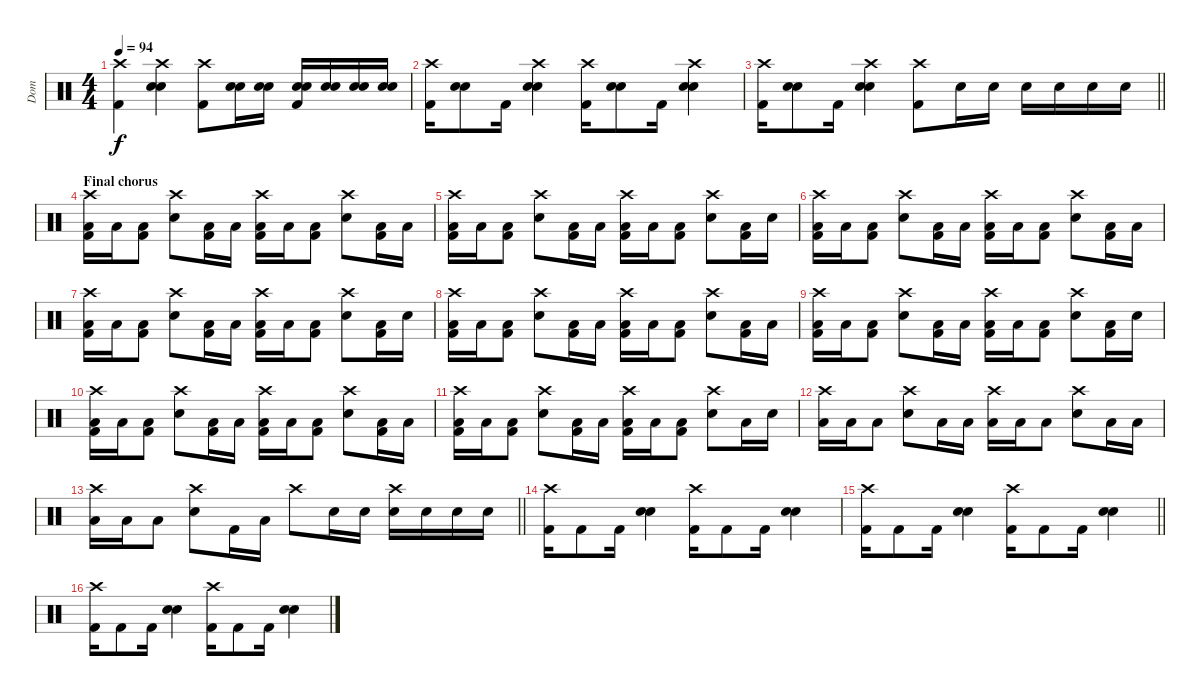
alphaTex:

\track ("Dom" "Dom") {instrument percussion}
\staff {score}
\articulation defaults
\ts (4 4)
\tempo 94
\clef neutral
\ks c
("Crash high (hit)" "Kick (hit) 2").4{dy f} ("Crash high (hit)" "Snare (hit) 2" "Electric Snare (hit)").4 ("Crash high (hit)" "Kick (hit) 2").8 ("Snare (hit) 2" "Electric Snare (hit)").16 ("Snare (hit) 2" "Electric Snare (hit)").16 ("Snare (hit) 2" "Electric Snare (hit)" "Kick (hit) 2").16 ("Snare (hit) 2" "Electric Snare (hit)").16 ("Snare (hit) 2" "Electric Snare (hit)").16 ("Snare (hit) 2" "Electric Snare (hit)").16 |
("Crash high (hit)" "Kick (hit) 2").16 ("Snare (hit) 2" "Electric Snare (hit)").8 "Kick (hit) 2".16 ("Crash high (hit)" "Snare (hit) 2" "Electric Snare (hit)").4 ("Crash high (hit)" "Kick (hit) 2").16 ("Snare (hit) 2" "Electric Snare (hit)").8 "Kick (hit) 2".16 ("Crash high (hit)" "Snare (hit) 2" "Electric Snare (hit)").4 |
\barLineRight lightlight
("Crash high (hit)" "Kick (hit) 2").16 ("Snare (hit) 2" "Electric Snare (hit)").8 "Kick (hit) 2".16 ("Crash high (hit)" "Snare (hit) 2" "Electric Snare (hit)").4 ("Crash high (hit)" "Kick (hit) 2").8 "Snare (hit) 2".16 "Snare (hit) 2".16 "Snare (hit) 2".16 "Snare (hit) 2".16 "Snare (hit) 2".16 "Snare (hit) 2".16 |
\section ("" "Final chorus")
("Crash high (hit)" "Low Tom (hit)" "Kick (hit) 2").16 "Low Tom (hit)".16 ("Low Tom (hit)" "Kick (hit) 2").8 ("Crash high (hit)" "Snare (hit) 2").8 ("Low Tom (hit)" "Kick (hit) 2").16 "Low Tom (hit)".16 ("Crash high (hit)" "Low Tom (hit)" "Kick (hit) 2").16 "Low Tom (hit)".16 ("Low Tom (hit)" "Kick (hit) 2").8 ("Crash high (hit)" "Snare (hit) 2").8 ("Low Tom (hit)" "Kick (hit) 2").16 "Low Tom (hit)".16 |
("Crash high (hit)" "Low Tom (hit)" "Kick (hit) 2").16 "Low Tom (hit)".16 ("Low Tom (hit)" "Kick (hit) 2").8 ("Crash high (hit)" "Snare (hit) 2").8 ("Low Tom (hit)" "Kick (hit) 2").16 "Low Tom (hit)".16 ("Crash high (hit)" "Low Tom (hit)" "Kick (hit) 2").16 "Low Tom (hit)".16 ("Low Tom (hit)" "Kick (hit) 2").8 ("Crash high (hit)" "Snare (hit) 2").8 ("Low Tom (hit)" "Kick (hit) 2").16 "Snare (hit) 2".16 |
("Crash high (hit)" "Low Tom (hit)" "Kick (hit) 2").16 "Low Tom (hit)".16 ("Low Tom (hit)" "Kick (hit) 2").8 ("Crash high (hit)" "Snare (hit) 2").8 ("Low Tom (hit)" "Kick (hit) 2").16 "Low Tom (hit)".16 ("Crash high (hit)" "Low Tom (hit)" "Kick (hit) 2").16 "Low Tom (hit)".16 ("Low Tom (hit)" "Kick (hit) 2").8 ("Crash high (hit)" "Snare (hit) 2").8 ("Low Tom (hit)" "Kick (hit) 2").16 "Low Tom (hit)".16 |
("Crash high (hit)" "Low Tom (hit)" "Kick (hit) 2").16 "Low Tom (hit)".16 ("Low Tom (hit)" "Kick (hit) 2").8 ("Crash high (hit)" "Snare (hit) 2").8 ("Low Tom (hit)" "Kick (hit) 2").16 "Low Tom (hit)".16 ("Crash high (hit)" "Low Tom (hit)" "Kick (hit) 2").16 "Low Tom (hit)".16 ("Low Tom (hit)" "Kick (hit) 2").8 ("Crash high (hit)" "Snare (hit) 2").8 ("Low Tom (hit)" "Kick (hit) 2").16 "Snare (hit) 2".16 |
("Crash high (hit)" "Low Tom (hit)" "Kick (hit) 2").16 "Low Tom (hit)".16 ("Low Tom (hit)" "Kick (hit) 2").8 ("Crash high (hit)" "Snare (hit) 2").8 ("Low Tom (hit)" "Kick (hit) 2").16 "Low Tom (hit)".16 ("Crash high (hit)" "Low Tom (hit)" "Kick (hit) 2").16 "Low Tom (hit)".16 ("Low Tom (hit)" "Kick (hit) 2").8 ("Crash high (hit)" "Snare (hit) 2").8 ("Low Tom (hit)" "Kick (hit) 2").16 "Low Tom (hit)".16 |
("Crash high (hit)" "Low Tom (hit)" "Kick (hit) 2").16 "Low Tom (hit)".16 ("Low Tom (hit)" "Kick (hit) 2").8 ("Crash high (hit)" "Snare (hit) 2").8 ("Low Tom (hit)" "Kick (hit) 2").16 "Low Tom (hit)".16 ("Crash high (hit)" "Low Tom (hit)" "Kick (hit) 2").16 "Low Tom (hit)".16 ("Low Tom (hit)" "Kick (hit) 2").8 ("Crash high (hit)" "Snare (hit) 2").8 ("Low Tom (hit)" "Kick (hit) 2").16 "Snare (hit) 2".16 |
("Crash high (hit)" "Low Tom (hit)" "Kick (hit) 2").16 "Low Tom (hit)".16 ("Low Tom (hit)" "Kick (hit) 2").8 ("Crash high (hit)" "Snare (hit) 2").8 ("Low Tom (hit)" "Kick (hit) 2").16 "Low Tom (hit)".16 ("Crash high (hit)" "Low Tom (hit)" "Kick (hit) 2").16 "Low Tom (hit)".16 ("Low Tom (hit)" "Kick (hit) 2").8 ("Crash high (hit)" "Snare (hit) 2").8 ("Low Tom (hit)" "Kick (hit) 2").16 "Low Tom (hit)".16 |
("Crash high (hit)" "Low Tom (hit)" "Kick (hit) 2").16 "Low Tom (hit)".16 ("Low Tom (hit)" "Kick (hit) 2").8 ("Crash high (hit)" "Snare (hit) 2").8 ("Low Tom (hit)" "Kick (hit) 2").16 "Low Tom (hit)".16 ("Crash high (hit)" "Low Tom (hit)" "Kick (hit) 2").16 "Low Tom (hit)".16 ("Low Tom (hit)" "Kick (hit) 2").8 ("Crash high (hit)" "Snare (hit) 2").8 "Low Tom (hit)".16 "Snare (hit) 2".16 |
("Crash high (hit)" "Low Tom (hit)").16 "Low Tom (hit)".16 "Low Tom (hit)".8 ("Crash high (hit)" "Snare (hit) 2").8 "Low Tom (hit)".16 "Low Tom (hit)".16 ("Crash high (hit)" "Low Tom (hit)").16 "Low Tom (hit)".16 "Low Tom (hit)".8 ("Crash high (hit)" "Snare (hit) 2").8 "Low Tom (hit)".16 "Low Tom (hit)".16 |
\barLineRight lightlight
("Crash high (hit)" "Low Tom (hit)").16 "Low Tom (hit)".16 "Low Tom (hit)".8 ("Crash high (hit)" "Snare (hit) 2").8 "Kick (hit) 2".16 "Low Tom (hit)".16 "Crash high (hit)".8 "Snare (hit) 2".16 "Snare (hit) 2".16 ("Crash high (hit)" "Snare (hit) 2").16 "Snare (hit) 2".16 "Snare (hit) 2".16 "Snare (hit) 2".16 |
("Crash high (hit)" "Kick (hit) 2").16 "Kick (hit) 2".8 "Kick (hit) 2".16 ("Electric Snare (hit)" "Snare (hit) 2").4 ("Crash high (hit)" "Kick (hit) 2").16 "Kick (hit) 2".8 "Kick (hit) 2".16 ("Electric Snare (hit)" "Snare (hit) 2").4 |
\barLineRight lightlight
("Crash high (hit)" "Kick (hit) 2").16 "Kick (hit) 2".8 "Kick (hit) 2".16 ("Electric Snare (hit)" "Snare (hit) 2").4 ("Crash high (hit)" "Kick (hit) 2").16 "Kick (hit) 2".8 "Kick (hit) 2".16 ("Electric Snare (hit)" "Snare (hit) 2").4 |
("Crash high (hit)" "Kick (hit) 2").16 "Kick (hit) 2".8 "Kick (hit) 2".16 ("Electric Snare (hit)" "Snare (hit) 2").4 ("Crash high (hit)" "Kick (hit) 2").16 "Kick (hit) 2".8 "Kick (hit) 2".16 ("Electric Snare (hit)" "Snare (hit) 2").4
